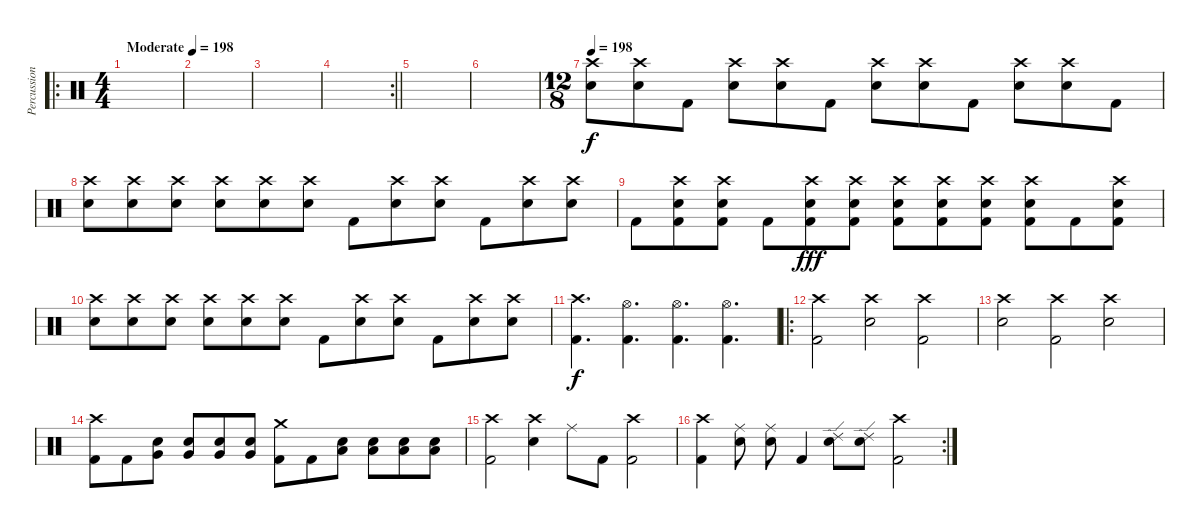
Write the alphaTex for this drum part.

\track ("Percussion" "Percussion") {instrument percussion}
\staff {score}
\articulation defaults
\ro
\ts (4 4)
\tempo (198 "Moderate")
\tempo 160
\tempo (198 "Moderate")
\clef neutral
\ks c
|
|
|
\rc 2
\barLineRight lightlight
|
|
|
\ts (12 8)
\tempo 198
("Crash high (hit)" "Snare (hit) 2").8 ("Crash high (hit)" "Snare (hit) 2").8 "Kick (hit) 2".8 ("Crash high (hit)" "Snare (hit) 2").8 ("Crash high (hit)" "Snare (hit) 2").8 "Kick (hit) 2".8 ("Crash high (hit)" "Snare (hit) 2").8 ("Crash high (hit)" "Snare (hit) 2").8 "Kick (hit) 2".8 ("Crash high (hit)" "Snare (hit) 2").8 ("Crash high (hit)" "Snare (hit) 2").8 "Kick (hit) 2".8 |
("Crash high (hit)" "Snare (hit) 2").8 ("Crash high (hit)" "Snare (hit) 2").8 ("Crash high (hit)" "Snare (hit) 2").8 ("Crash high (hit)" "Snare (hit) 2").8 ("Crash high (hit)" "Snare (hit) 2").8 ("Crash high (hit)" "Snare (hit) 2").8 "Kick (hit) 2".8 ("Crash high (hit)" "Snare (hit) 2").8 ("Crash high (hit)" "Snare (hit) 2").8 "Kick (hit) 2".8 ("Crash high (hit)" "Snare (hit) 2").8 ("Crash high (hit)" "Snare (hit) 2").8 |
"Kick (hit) 2".8 ("Crash high (hit)" "Snare (hit) 2" "Kick (hit) 2").8 ("Crash high (hit)" "Snare (hit) 2" "Kick (hit) 2").8 "Kick (hit) 2".8{dy f} ("Crash high (hit)" "Snare (hit) 2" "Kick (hit) 2").8{dy fff} ("Crash high (hit)" "Snare (hit) 2" "Kick (hit) 2").8 ("Crash high (hit)" "Snare (hit) 2" "Kick (hit) 2").8 ("Crash high (hit)" "Snare (hit) 2" "Kick (hit) 2").8 ("Crash high (hit)" "Snare (hit) 2" "Kick (hit) 2").8 ("Crash high (hit)" "Snare (hit) 2" "Kick (hit) 2").8 "Kick (hit) 2".8 ("Crash high (hit)" "Snare (hit) 2" "Kick (hit) 2").8 |
("Crash high (hit)" "Snare (hit) 2").8 ("Crash high (hit)" "Snare (hit) 2").8 ("Crash high (hit)" "Snare (hit) 2").8 ("Crash high (hit)" "Snare (hit) 2").8 ("Crash high (hit)" "Snare (hit) 2").8 ("Crash high (hit)" "Snare (hit) 2").8 "Kick (hit) 2".8 ("Crash high (hit)" "Snare (hit) 2").8 ("Crash high (hit)" "Snare (hit) 2").8 "Kick (hit) 2".8 ("Crash high (hit)" "Snare (hit) 2").8 ("Crash high (hit)" "Snare (hit) 2").8 |
("Crash high (hit)" "Kick (hit) 2").4{d dy f} ("Hi-Hat (open)" "Kick (hit) 2").4{d} ("Hi-Hat (open)" "Kick (hit) 2").4{d} ("Hi-Hat (open)" "Kick (hit) 2").4{d} |
\ro
("Crash high (hit)" "Kick (hit) 2").2 ("Crash high (hit)" "Snare (hit) 2").2 ("Crash high (hit)" "Kick (hit) 2").2 |
("Crash high (hit)" "Snare (hit) 2").2 ("Crash high (hit)" "Kick (hit) 2").2 ("Crash high (hit)" "Snare (hit) 2").2 |
("Crash high (hit)" "Kick (hit) 2").8 "Kick (hit) 2".8 ("Very Low Tom (hit)" "Snare (hit) 2").8 ("Very Low Tom (hit)" "Snare (hit) 2").8 ("Very Low Tom (hit)" "Snare (hit) 2").8 ("Very Low Tom (hit)" "Snare (hit) 2").8 ("Crash medium (hit)" "Kick (hit) 2").8 "Kick (hit) 2".8 ("Low Floor Tom (hit)" "Snare (hit) 2").8 ("Low Floor Tom (hit)" "Snare (hit) 2").8 ("Low Floor Tom (hit)" "Snare (hit) 2").8 ("Low Floor Tom (hit)" "Snare (hit) 2").8 |
("Crash high (hit)" "Kick (hit) 2").2 ("Crash high (hit)" "Snare (hit) 2").4 "Ride (middle)".8 "Kick (hit) 2".8 ("Crash high (hit)" "Kick (hit) 2").2 |
\rc 2
("Crash high (hit)" "Kick (hit) 2").4 ("Ride (middle)" "Snare (hit) 2").8 ("Ride (middle)" "Snare (hit) 2").8 "Kick (hit) 2".4 ("Ride (edge) 2" "Snare (hit) 2").8 ("Ride (edge) 2" "Snare (hit) 2").8 ("Crash high (hit)" "Kick (hit) 2").2
